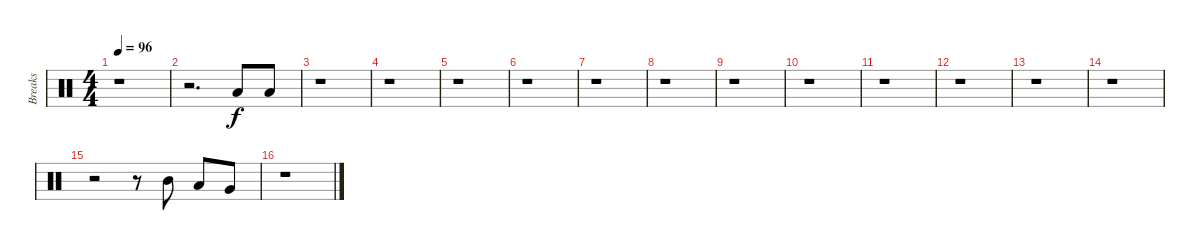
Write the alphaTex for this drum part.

\track ("Breaks" "Breaks") {instrument percussion}
\staff {score}
\articulation defaults
\ts (4 4)
\tempo 96
\clef neutral
\ks c
r.1{dy f} |
r.2{d} "Low Tom (hit)".8 "Low Floor Tom (hit)".8 |
r.1 |
r.1 |
r.1 |
r.1 |
r.1 |
r.1 |
r.1 |
r.1 |
r.1 |
r.1 |
r.1 |
r.1 |
r.2 r.8 "Mid Tom (hit)".8 "Low Tom (hit)".8 "Very Low Tom (hit)".8 |
r.1
